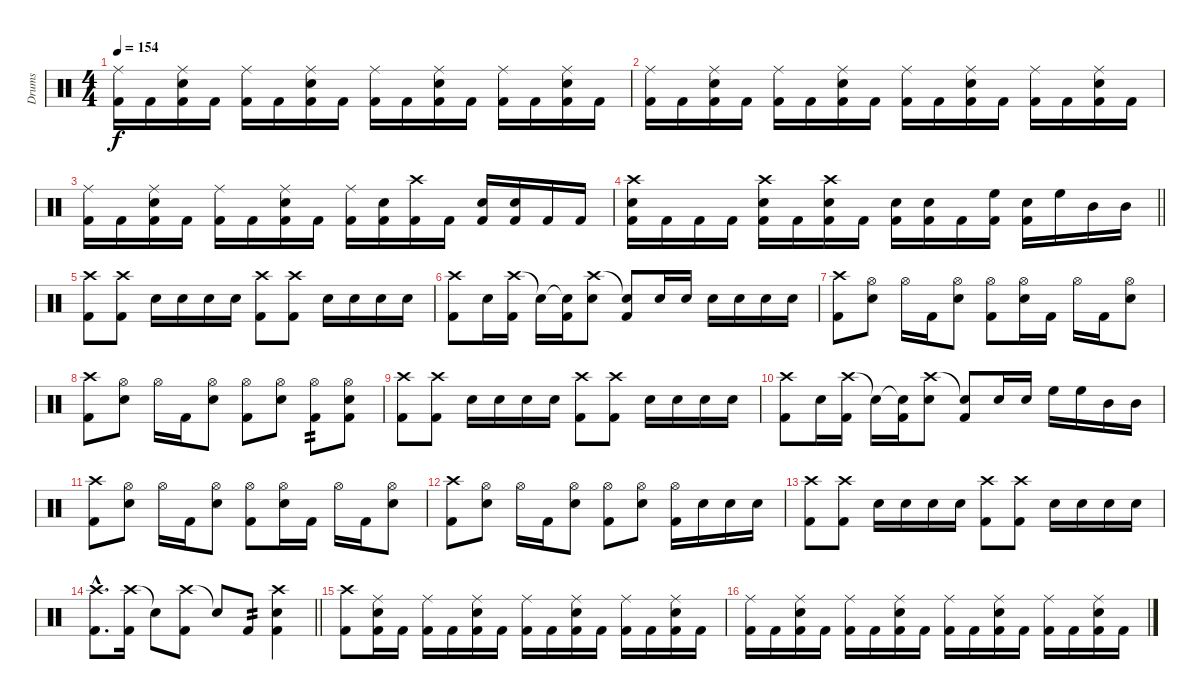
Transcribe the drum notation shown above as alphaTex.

\track ("Drums" "Drums") {instrument percussion}
\staff {score}
\articulation defaults
\ts (4 4)
\tempo 154
\clef neutral
\ks c
("Ride (middle)" "Kick (hit) 2").16{dy f} "Kick (hit) 2".16 ("Ride (middle)" "Snare (hit) 2" "Kick (hit) 2").16 "Kick (hit) 2".16 ("Ride (middle)" "Kick (hit) 2").16 "Kick (hit) 2".16 ("Ride (middle)" "Snare (hit) 2" "Kick (hit) 2").16 "Kick (hit) 2".16 ("Ride (middle)" "Kick (hit) 2").16 "Kick (hit) 2".16 ("Ride (middle)" "Snare (hit) 2" "Kick (hit) 2").16 "Kick (hit) 2".16 ("Ride (middle)" "Kick (hit) 2").16 "Kick (hit) 2".16 ("Ride (middle)" "Snare (hit) 2" "Kick (hit) 2").16 "Kick (hit) 2".16 |
("Ride (middle)" "Kick (hit) 2").16 "Kick (hit) 2".16 ("Ride (middle)" "Snare (hit) 2" "Kick (hit) 2").16 "Kick (hit) 2".16 ("Ride (middle)" "Kick (hit) 2").16 "Kick (hit) 2".16 ("Ride (middle)" "Snare (hit) 2" "Kick (hit) 2").16 "Kick (hit) 2".16 ("Ride (middle)" "Kick (hit) 2").16 "Kick (hit) 2".16 ("Ride (middle)" "Snare (hit) 2" "Kick (hit) 2").16 "Kick (hit) 2".16 ("Ride (middle)" "Kick (hit) 2").16 "Kick (hit) 2".16 ("Ride (middle)" "Snare (hit) 2" "Kick (hit) 2").16 "Kick (hit) 2".16 |
("Ride (middle)" "Kick (hit) 2").16 "Kick (hit) 2".16 ("Ride (middle)" "Snare (hit) 2" "Kick (hit) 2").16 "Kick (hit) 2".16 ("Ride (middle)" "Kick (hit) 2").16 "Kick (hit) 2".16 ("Ride (middle)" "Snare (hit) 2" "Kick (hit) 2").16 "Kick (hit) 2".16 ("Ride (middle)" "Kick (hit) 2").16 ("Snare (hit) 2" "Kick (hit) 2").16 ("Crash high (hit)" "Kick (hit) 2").16 "Kick (hit) 2".16 ("Snare (hit) 2" "Kick (hit) 2").16 ("Snare (hit) 2" "Kick (hit) 2").16 "Kick (hit) 2".16 "Kick (hit) 2".16 |
\barLineRight lightlight
("Crash high (hit)" "Snare (hit) 2" "Kick (hit) 2").16 "Kick (hit) 2".16 "Kick (hit) 2".16 "Kick (hit) 2".16 ("Crash high (hit)" "Snare (hit) 2" "Kick (hit) 2").16 "Kick (hit) 2".16 ("Crash high (hit)" "Snare (hit) 2" "Kick (hit) 2").16 "Kick (hit) 2".16 ("Snare (hit) 2" "Kick (hit) 2").16 ("Snare (hit) 2" "Kick (hit) 2").16 "Kick (hit) 2".16 ("High Floor Tom (hit)" "Kick (hit) 2").16 ("Snare (hit) 2" "Kick (hit) 2").16 "High Floor Tom (hit)".16 "Mid Tom (hit)".16 "Mid Tom (hit)".16 |
("Crash high (hit)" "Kick (hit) 2").8 ("Crash high (hit)" "Kick (hit) 2").8 "Snare (hit) 2".16 "Snare (hit) 2".16 "Snare (hit) 2".16 "Snare (hit) 2".16 ("Crash high (hit)" "Kick (hit) 2").8 ("Crash high (hit)" "Kick (hit) 2").8 "Snare (hit) 2".16 "Snare (hit) 2".16 "Snare (hit) 2".16 "Snare (hit) 2".16 |
("Crash high (hit)" "Kick (hit) 2").8 "Snare (hit) 2".16 ("Crash high (hit)" "Kick (hit) 2").16 "Snare (hit)"{t}.16 ("Snare (hit)"{t} "Kick (hit) 2").16 ("Crash high (hit)" "Snare (hit) 2").8 ("Snare (hit)"{t} "Kick (hit) 2").8 "Snare (hit) 2".16 "Snare (hit) 2".16 "Snare (hit) 2".16 "Snare (hit) 2".16 "Snare (hit) 2".16 "Snare (hit) 2".16 |
("Crash high (hit)" "Kick (hit) 2").8 ("Hi-Hat (open)" "Snare (hit) 2").8 "Hi-Hat (open)".16 "Kick (hit) 2".16 ("Hi-Hat (open)" "Snare (hit) 2").8 ("Hi-Hat (open)" "Kick (hit) 2").8 ("Hi-Hat (open)" "Snare (hit) 2").16 "Kick (hit) 2".16 "Hi-Hat (open)".16 "Kick (hit) 2".16 ("Hi-Hat (open)" "Snare (hit) 2").8 |
("Crash high (hit)" "Kick (hit) 2").8 ("Hi-Hat (open)" "Snare (hit) 2").8 "Hi-Hat (open)".16 "Kick (hit) 2".16 ("Hi-Hat (open)" "Snare (hit) 2").8 ("Hi-Hat (open)" "Kick (hit) 2").8 ("Hi-Hat (open)" "Snare (hit) 2").8 ("Hi-Hat (open)" "Kick (hit) 2").8{tp 2} ("Hi-Hat (open)" "Snare (hit) 2" "Kick (hit) 2").8 |
("Crash high (hit)" "Kick (hit) 2").8 ("Crash high (hit)" "Kick (hit) 2").8 "Snare (hit) 2".16 "Snare (hit) 2".16 "Snare (hit) 2".16 "Snare (hit) 2".16 ("Crash high (hit)" "Kick (hit) 2").8 ("Crash high (hit)" "Kick (hit) 2").8 "Snare (hit) 2".16 "Snare (hit) 2".16 "Snare (hit) 2".16 "Snare (hit) 2".16 |
("Crash high (hit)" "Kick (hit) 2").8 "Snare (hit) 2".16 ("Crash high (hit)" "Kick (hit) 2").16 "Snare (hit)"{t}.16 ("Snare (hit)"{t} "Kick (hit) 2").16 ("Crash high (hit)" "Snare (hit) 2").8 ("Snare (hit)"{t} "Kick (hit) 2").8 "Snare (hit) 2".16 "Snare (hit) 2".16 "High Floor Tom (hit)".16 "High Floor Tom (hit)".16 "Mid Tom (hit)".16 "Mid Tom (hit)".16 |
("Crash high (hit)" "Kick (hit) 2").8 ("Hi-Hat (open)" "Snare (hit) 2").8 "Hi-Hat (open)".16 "Kick (hit) 2".16 ("Hi-Hat (open)" "Snare (hit) 2").8 ("Hi-Hat (open)" "Kick (hit) 2").8 ("Hi-Hat (open)" "Snare (hit) 2").16 "Kick (hit) 2".16 "Hi-Hat (open)".16 "Kick (hit) 2".16 ("Hi-Hat (open)" "Snare (hit) 2").8 |
("Crash high (hit)" "Kick (hit) 2").8 ("Hi-Hat (open)" "Snare (hit) 2").8 "Hi-Hat (open)".16 "Kick (hit) 2".16 ("Hi-Hat (open)" "Snare (hit) 2").8 ("Hi-Hat (open)" "Kick (hit) 2").8 ("Hi-Hat (open)" "Snare (hit) 2").8 ("Hi-Hat (open)" "Kick (hit) 2").16 "Snare (hit) 2".16 "Snare (hit) 2".16 "Snare (hit) 2".16 |
("Crash high (hit)" "Kick (hit) 2").8 ("Crash high (hit)" "Kick (hit) 2").8 "Snare (hit) 2".16 "Snare (hit) 2".16 "Snare (hit) 2".16 "Snare (hit) 2".16 ("Crash high (hit)" "Kick (hit) 2").8 ("Crash high (hit)" "Kick (hit) 2").8 "Snare (hit) 2".16 "Snare (hit) 2".16 "Snare (hit) 2".16 "Snare (hit) 2".16 |
\barLineRight lightlight
("Crash high (hit)"{hac} "Kick (hit) 2"{hac}).8{d} ("Crash high (hit)" "Kick (hit) 2").16 "Snare (hit)"{t}.8 ("Crash high (hit)" "Kick (hit) 2").8 "Snare (hit)"{t}.8 "Kick (hit) 2".8{tp 2} ("Crash high (hit)" "Snare (hit) 2" "Kick (hit) 2").4 |
("Crash high (hit)" "Kick (hit) 2").8 ("Ride (middle)" "Snare (hit) 2" "Kick (hit) 2").16 "Kick (hit) 2".16 ("Ride (middle)" "Kick (hit) 2").16 "Kick (hit) 2".16 ("Ride (middle)" "Snare (hit) 2" "Kick (hit) 2").16 "Kick (hit) 2".16 ("Ride (middle)" "Kick (hit) 2").16 "Kick (hit) 2".16 ("Ride (middle)" "Snare (hit) 2" "Kick (hit) 2").16 "Kick (hit) 2".16 ("Ride (middle)" "Kick (hit) 2").16 "Kick (hit) 2".16 ("Ride (middle)" "Snare (hit) 2" "Kick (hit) 2").16 "Kick (hit) 2".16 |
("Ride (middle)" "Kick (hit) 2").16 "Kick (hit) 2".16 ("Ride (middle)" "Snare (hit) 2" "Kick (hit) 2").16 "Kick (hit) 2".16 ("Ride (middle)" "Kick (hit) 2").16 "Kick (hit) 2".16 ("Ride (middle)" "Snare (hit) 2" "Kick (hit) 2").16 "Kick (hit) 2".16 ("Ride (middle)" "Kick (hit) 2").16 "Kick (hit) 2".16 ("Ride (middle)" "Snare (hit) 2" "Kick (hit) 2").16 "Kick (hit) 2".16 ("Ride (middle)" "Kick (hit) 2").16 "Kick (hit) 2".16 ("Ride (middle)" "Snare (hit) 2" "Kick (hit) 2").16 "Kick (hit) 2".16
